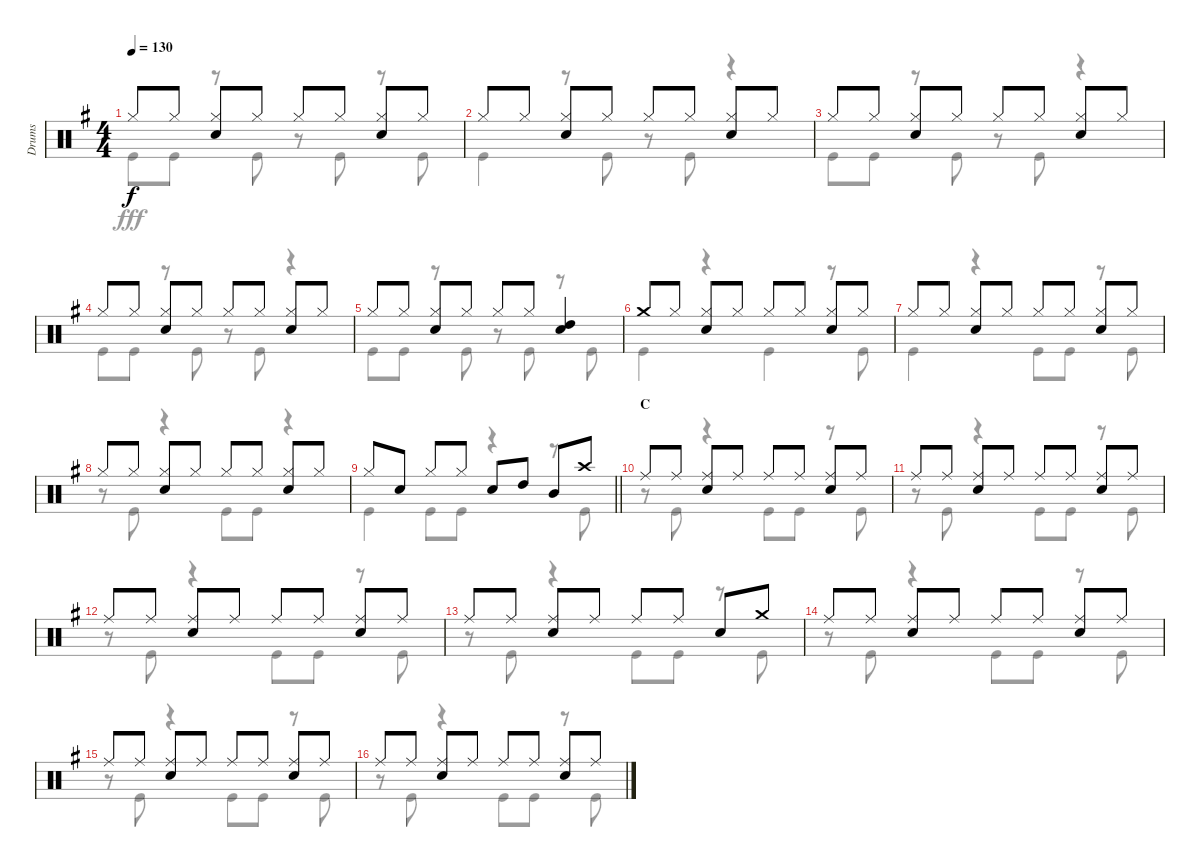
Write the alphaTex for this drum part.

\track ("Drums" "Drums") {instrument percussion}
\staff {score}
\articulation defaults
\voice
\ts (4 4)
\tempo 130
\clef neutral
\ks g "Hi-Hat (closed)".8{dy f} "Hi-Hat (closed)".8
("Hi-Hat (closed)" "Snare (hit) 2").8 "Hi-Hat (closed)".8 "Hi-Hat (closed)".8 "Hi-Hat (closed)".8 ("Hi-Hat (closed)" "Snare (hit) 2").8 "Hi-Hat (closed)".8 |
"Hi-Hat (closed)".8 "Hi-Hat (closed)".8 ("Hi-Hat (closed)" "Snare (hit) 2").8 "Hi-Hat (closed)".8 "Hi-Hat (closed)".8 "Hi-Hat (closed)".8 ("Hi-Hat (closed)" "Snare (hit) 2").8 "Hi-Hat (closed)".8 |
"Hi-Hat (closed)".8 "Hi-Hat (closed)".8 ("Hi-Hat (closed)" "Snare (hit) 2").8 "Hi-Hat (closed)".8 "Hi-Hat (closed)".8 "Hi-Hat (closed)".8 ("Hi-Hat (closed)" "Snare (hit) 2").8 "Hi-Hat (closed)".8 |
"Hi-Hat (closed)".8 "Hi-Hat (closed)".8 ("Hi-Hat (closed)" "Snare (hit) 2").8 "Hi-Hat (closed)".8 "Hi-Hat (closed)".8 "Hi-Hat (closed)".8 ("Hi-Hat (closed)" "Snare (hit) 2").8 "Hi-Hat (closed)".8 |
"Hi-Hat (closed)".8 "Hi-Hat (closed)".8 ("Hi-Hat (closed)" "Snare (hit) 2").8 "Hi-Hat (closed)".8 "Hi-Hat (closed)".8 "Hi-Hat (closed)".8 ("High Tom (hit)" "Snare (hit) 2").4 |
"Crash medium (hit)".8 "Hi-Hat (closed)".8 ("Hi-Hat (closed)" "Snare (hit) 2").8 "Hi-Hat (closed)".8 "Hi-Hat (closed)".8 "Hi-Hat (closed)".8 ("Hi-Hat (closed)" "Snare (hit) 2").8 "Hi-Hat (closed)".8 |
"Hi-Hat (closed)".8 "Hi-Hat (closed)".8 ("Hi-Hat (closed)" "Snare (hit) 2").8 "Hi-Hat (closed)".8 "Hi-Hat (closed)".8 "Hi-Hat (closed)".8 ("Hi-Hat (closed)" "Snare (hit) 2").8 "Hi-Hat (closed)".8 |
"Hi-Hat (closed)".8 "Hi-Hat (closed)".8 ("Hi-Hat (closed)" "Snare (hit) 2").8 "Hi-Hat (closed)".8 "Hi-Hat (closed)".8 "Hi-Hat (closed)".8 ("Hi-Hat (closed)" "Snare (hit) 2").8 "Hi-Hat (closed)".8 |
\barLineRight lightlight "Hi-Hat (closed)".8 "Snare (hit) 2".8 "Hi-Hat (closed)".8 "Hi-Hat (closed)".8 "Snare (hit) 2".8 "High Tom (hit)".8 "Mid Tom (hit)".8 "Crash high (hit)".8
|
\section ("" "C")
"Ride (middle)".8 "Ride (middle)".8 ("Ride (middle)" "Snare (hit) 2").8 "Ride (middle)".8 "Ride (middle)".8 "Ride (middle)".8 ("Ride (middle)" "Snare (hit) 2").8 "Ride (middle)".8 |
"Ride (middle)".8 "Ride (middle)".8 ("Ride (middle)" "Snare (hit) 2").8 "Ride (middle)".8 "Ride (middle)".8 "Ride (middle)".8 ("Ride (middle)" "Snare (hit) 2").8 "Ride (middle)".8 |
"Ride (middle)".8 "Ride (middle)".8 ("Ride (middle)" "Snare (hit) 2").8 "Ride (middle)".8 "Ride (middle)".8 "Ride (middle)".8 ("Ride (middle)" "Snare (hit) 2").8 "Ride (middle)".8 |
"Ride (middle)".8 "Ride (middle)".8 ("Ride (middle)" "Snare (hit) 2").8 "Ride (middle)".8 "Ride (middle)".8 "Ride (middle)".8 "Snare (hit) 2".8 "Crash medium (hit)".8 |
"Ride (middle)".8 "Ride (middle)".8 ("Ride (middle)" "Snare (hit) 2").8 "Ride (middle)".8 "Ride (middle)".8 "Ride (middle)".8 ("Ride (middle)" "Snare (hit) 2").8 "Ride (middle)".8 |
"Ride (middle)".8 "Ride (middle)".8 ("Ride (middle)" "Snare (hit) 2").8 "Ride (middle)".8 "Ride (middle)".8 "Ride (middle)".8 ("Ride (middle)" "Snare (hit) 2").8 "Ride (middle)".8 |
"Ride (middle)".8 "Ride (middle)".8 ("Ride (middle)" "Snare (hit) 2").8 "Ride (middle)".8 "Ride (middle)".8 "Ride (middle)".8 ("Ride (middle)" "Snare (hit) 2").8 "Ride (middle)".8
\voice
\clef neutral
\ottava regular
\simile none
\ks g "Kick (hit)".8{dy fff} "Kick (hit)".8
r.8 "Kick (hit)".8 r.8 "Kick (hit)".8 r.8 "Kick (hit)".8 |
"Kick (hit)".4 r.8 "Kick (hit)".8 r.8 "Kick (hit)".8 r.4 |
"Kick (hit)".8 "Kick (hit)".8 r.8 "Kick (hit)".8 r.8 "Kick (hit)".8 r.4 |
"Kick (hit)".8 "Kick (hit)".8 r.8 "Kick (hit)".8 r.8 "Kick (hit)".8 r.4 |
"Kick (hit)".8 "Kick (hit)".8 r.8 "Kick (hit)".8 r.8 "Kick (hit)".8 r.8 "Kick (hit)".8 |
"Kick (hit)".4 r.4 "Kick (hit)".4 r.8 "Kick (hit)".8 |
"Kick (hit)".4 r.4 "Kick (hit)".8 "Kick (hit)".8 r.8 "Kick (hit)".8 |
r.8 "Kick (hit)".8 r.4 "Kick (hit)".8 "Kick (hit)".8 r.4 |
\barLineRight lightlight "Kick (hit)".4 "Kick (hit)".8 "Kick (hit)".8
r.4 r.8 "Kick (hit)".8 |
r.8 "Kick (hit)".8 r.4 "Kick (hit)".8 "Kick (hit)".8 r.8 "Kick (hit)".8 |
r.8 "Kick (hit)".8 r.4 "Kick (hit)".8 "Kick (hit)".8 r.8 "Kick (hit)".8 |
r.8 "Kick (hit)".8 r.4 "Kick (hit)".8 "Kick (hit)".8 r.8 "Kick (hit)".8 |
r.8 "Kick (hit)".8 r.4 "Kick (hit)".8 "Kick (hit)".8 r.8 "Kick (hit)".8 |
r.8 "Kick (hit)".8 r.4 "Kick (hit)".8 "Kick (hit)".8 r.8 "Kick (hit)".8 |
r.8 "Kick (hit)".8 r.4 "Kick (hit)".8 "Kick (hit)".8 r.8 "Kick (hit)".8 |
r.8 "Kick (hit)".8 r.4 "Kick (hit)".8 "Kick (hit)".8 r.8 "Kick (hit)".8
